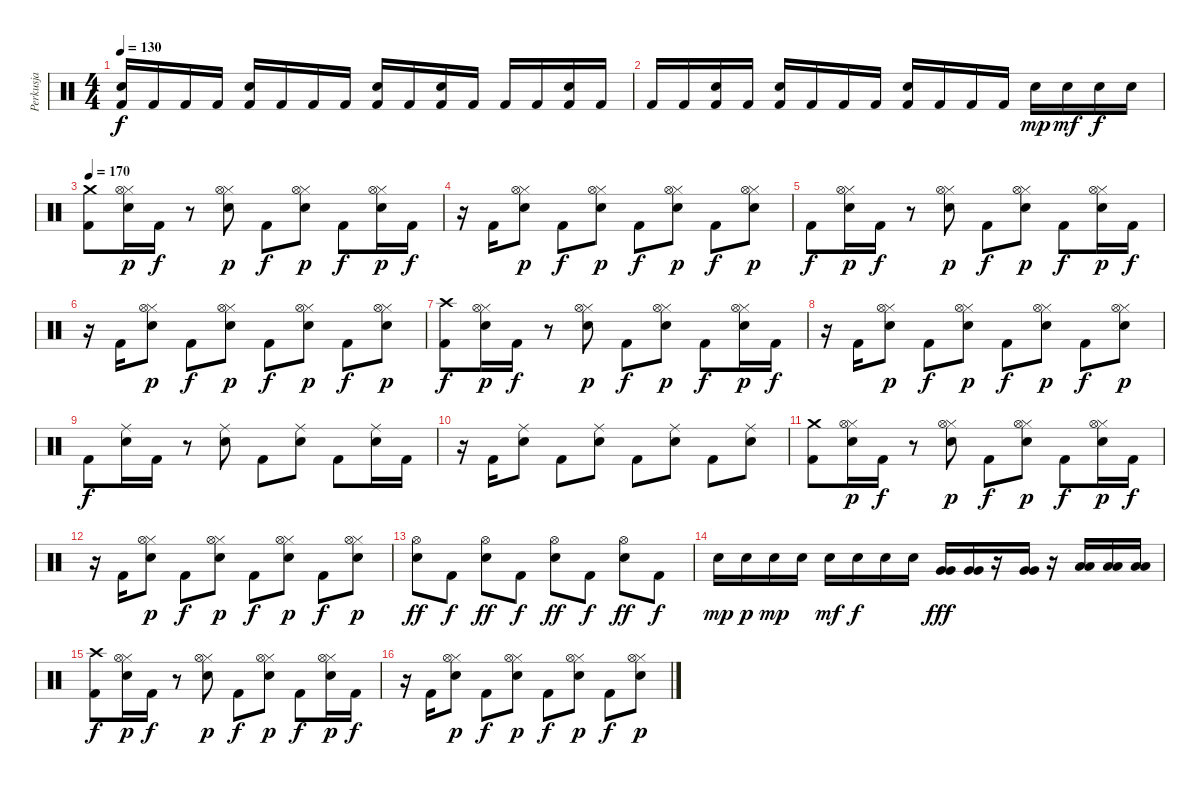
\track ("Perkusja" "Perkusja") {instrument percussion}
\staff {score}
\articulation defaults
\ts (4 4)
\tempo 130
\clef neutral
\ks c
("Kick (hit) 2" "Electric Snare (hit)").16{dy f} "Kick (hit) 2".16 "Kick (hit) 2".16 "Kick (hit) 2".16 ("Kick (hit) 2" "Electric Snare (hit)").16 "Kick (hit) 2".16 "Kick (hit) 2".16 "Kick (hit) 2".16 ("Kick (hit) 2" "Electric Snare (hit)").16 "Kick (hit) 2".16 ("Kick (hit) 2" "Electric Snare (hit)").16 "Kick (hit) 2".16 "Kick (hit) 2".16 "Kick (hit) 2".16 ("Kick (hit) 2" "Electric Snare (hit)").16 "Kick (hit) 2".16 |
"Kick (hit) 2".16 "Kick (hit) 2".16 ("Kick (hit) 2" "Electric Snare (hit)").16 "Kick (hit) 2".16 ("Kick (hit) 2" "Electric Snare (hit)").16 "Kick (hit) 2".16 "Kick (hit) 2".16 "Kick (hit) 2".16 ("Kick (hit) 2" "Electric Snare (hit)").16 "Kick (hit) 2".16 "Kick (hit) 2".16 "Kick (hit) 2".16 "Electric Snare (hit)".16{dy mp} "Electric Snare (hit)".16{dy mf} "Electric Snare (hit)".16{dy f} "Electric Snare (hit)".16 |
\tempo 170
("Kick (hit) 2" "Crash medium (hit)").8 ("Electric Snare (hit)" "Hi-Hat (closed)" "Hi-Hat (open)").16{dy p} "Kick (hit) 2".16{dy f} r.8 ("Electric Snare (hit)" "Hi-Hat (closed)" "Hi-Hat (open)").8{dy p} "Kick (hit) 2".8{dy f} ("Electric Snare (hit)" "Hi-Hat (closed)" "Hi-Hat (open)").8{dy p} "Kick (hit) 2".8{dy f} ("Electric Snare (hit)" "Hi-Hat (closed)" "Hi-Hat (open)").16{dy p} "Kick (hit) 2".16{dy f} |
r.16 "Kick (hit) 2".16 ("Electric Snare (hit)" "Hi-Hat (closed)" "Hi-Hat (open)").8{dy p} "Kick (hit) 2".8{dy f} ("Electric Snare (hit)" "Hi-Hat (closed)" "Hi-Hat (open)").8{dy p} "Kick (hit) 2".8{dy f} ("Electric Snare (hit)" "Hi-Hat (closed)" "Hi-Hat (open)").8{dy p} "Kick (hit) 2".8{dy f} ("Electric Snare (hit)" "Hi-Hat (closed)" "Hi-Hat (open)").8{dy p} |
"Kick (hit) 2".8{dy f} ("Electric Snare (hit)" "Hi-Hat (closed)" "Hi-Hat (open)").16{dy p} "Kick (hit) 2".16{dy f} r.8 ("Electric Snare (hit)" "Hi-Hat (closed)" "Hi-Hat (open)").8{dy p} "Kick (hit) 2".8{dy f} ("Electric Snare (hit)" "Hi-Hat (closed)" "Hi-Hat (open)").8{dy p} "Kick (hit) 2".8{dy f} ("Electric Snare (hit)" "Hi-Hat (closed)" "Hi-Hat (open)").16{dy p} "Kick (hit) 2".16{dy f} |
r.16 "Kick (hit) 2".16 ("Electric Snare (hit)" "Hi-Hat (closed)" "Hi-Hat (open)").8{dy p} "Kick (hit) 2".8{dy f} ("Electric Snare (hit)" "Hi-Hat (closed)" "Hi-Hat (open)").8{dy p} "Kick (hit) 2".8{dy f} ("Electric Snare (hit)" "Hi-Hat (closed)" "Hi-Hat (open)").8{dy p} "Kick (hit) 2".8{dy f} ("Electric Snare (hit)" "Hi-Hat (closed)" "Hi-Hat (open)").8{dy p} |
("Kick (hit) 2" "Crash high (hit)").8{dy f} ("Electric Snare (hit)" "Hi-Hat (closed)" "Hi-Hat (open)").16{dy p} "Kick (hit) 2".16{dy f} r.8 ("Electric Snare (hit)" "Hi-Hat (closed)" "Hi-Hat (open)").8{dy p} "Kick (hit) 2".8{dy f} ("Electric Snare (hit)" "Hi-Hat (closed)" "Hi-Hat (open)").8{dy p} "Kick (hit) 2".8{dy f} ("Electric Snare (hit)" "Hi-Hat (closed)" "Hi-Hat (open)").16{dy p} "Kick (hit) 2".16{dy f} |
r.16 "Kick (hit) 2".16 ("Electric Snare (hit)" "Hi-Hat (closed)" "Hi-Hat (open)").8{dy p} "Kick (hit) 2".8{dy f} ("Electric Snare (hit)" "Hi-Hat (closed)" "Hi-Hat (open)").8{dy p} "Kick (hit) 2".8{dy f} ("Electric Snare (hit)" "Hi-Hat (closed)" "Hi-Hat (open)").8{dy p} "Kick (hit) 2".8{dy f} ("Electric Snare (hit)" "Hi-Hat (closed)" "Hi-Hat (open)").8{dy p} |
"Kick (hit) 2".8{dy f} ("Electric Snare (hit)" "Ride (middle)").16 "Kick (hit) 2".16 r.8 ("Electric Snare (hit)" "Ride (middle)").8 "Kick (hit) 2".8 ("Electric Snare (hit)" "Ride (middle)").8 "Kick (hit) 2".8 ("Electric Snare (hit)" "Ride (middle)").16 "Kick (hit) 2".16 |
r.16 "Kick (hit) 2".16 ("Electric Snare (hit)" "Ride (middle)").8 "Kick (hit) 2".8 ("Electric Snare (hit)" "Ride (middle)").8 "Kick (hit) 2".8 ("Electric Snare (hit)" "Ride (middle)").8 "Kick (hit) 2".8 ("Electric Snare (hit)" "Ride (middle)").8 |
("Kick (hit) 2" "Crash medium (hit)").8 ("Electric Snare (hit)" "Hi-Hat (closed)" "Hi-Hat (open)").16{dy p} "Kick (hit) 2".16{dy f} r.8 ("Electric Snare (hit)" "Hi-Hat (closed)" "Hi-Hat (open)").8{dy p} "Kick (hit) 2".8{dy f} ("Electric Snare (hit)" "Hi-Hat (closed)" "Hi-Hat (open)").8{dy p} "Kick (hit) 2".8{dy f} ("Electric Snare (hit)" "Hi-Hat (closed)" "Hi-Hat (open)").16{dy p} "Kick (hit) 2".16{dy f} |
r.16 "Kick (hit) 2".16 ("Electric Snare (hit)" "Hi-Hat (closed)" "Hi-Hat (open)").8{dy p} "Kick (hit) 2".8{dy f} ("Electric Snare (hit)" "Hi-Hat (closed)" "Hi-Hat (open)").8{dy p} "Kick (hit) 2".8{dy f} ("Electric Snare (hit)" "Hi-Hat (closed)" "Hi-Hat (open)").8{dy p} "Kick (hit) 2".8{dy f} ("Electric Snare (hit)" "Hi-Hat (closed)" "Hi-Hat (open)").8{dy p} |
("Electric Snare (hit)" "Hi-Hat (open)").8{dy ff} "Kick (hit) 2".8{dy f} ("Electric Snare (hit)" "Hi-Hat (open)").8{dy ff} "Kick (hit) 2".8{dy f} ("Electric Snare (hit)" "Hi-Hat (open)").8{dy ff} "Kick (hit) 2".8{dy f} ("Electric Snare (hit)" "Hi-Hat (open)").8{dy ff} "Kick (hit) 2".8{dy f} |
"Electric Snare (hit)".16{dy mp} "Electric Snare (hit)".16{dy p} "Electric Snare (hit)".16{dy mp} "Electric Snare (hit)".16 "Electric Snare (hit)".16{dy mf} "Electric Snare (hit)".16{dy f} "Electric Snare (hit)".16 "Electric Snare (hit)".16 ("Very Low Tom (hit)" "Very Low Tom (hit)").16{dy fff} ("Very Low Tom (hit)" "Very Low Tom (hit)").16 r.16 ("Very Low Tom (hit)" "Very Low Tom (hit)").16 r.16 ("Low Floor Tom (hit)" "Low Floor Tom (hit)").16 ("Low Floor Tom (hit)" "Low Floor Tom (hit)").16 ("Low Floor Tom (hit)" "Low Floor Tom (hit)").16 |
("Kick (hit) 2" "Crash high (hit)").8{dy f} ("Electric Snare (hit)" "Hi-Hat (closed)" "Hi-Hat (open)").16{dy p} "Kick (hit) 2".16{dy f} r.8 ("Electric Snare (hit)" "Hi-Hat (closed)" "Hi-Hat (open)").8{dy p} "Kick (hit) 2".8{dy f} ("Electric Snare (hit)" "Hi-Hat (closed)" "Hi-Hat (open)").8{dy p} "Kick (hit) 2".8{dy f} ("Electric Snare (hit)" "Hi-Hat (closed)" "Hi-Hat (open)").16{dy p} "Kick (hit) 2".16{dy f} |
r.16 "Kick (hit) 2".16 ("Electric Snare (hit)" "Hi-Hat (closed)" "Hi-Hat (open)").8{dy p} "Kick (hit) 2".8{dy f} ("Electric Snare (hit)" "Hi-Hat (closed)" "Hi-Hat (open)").8{dy p} "Kick (hit) 2".8{dy f} ("Electric Snare (hit)" "Hi-Hat (closed)" "Hi-Hat (open)").8{dy p} "Kick (hit) 2".8{dy f} ("Electric Snare (hit)" "Hi-Hat (closed)" "Hi-Hat (open)").8{dy p}
